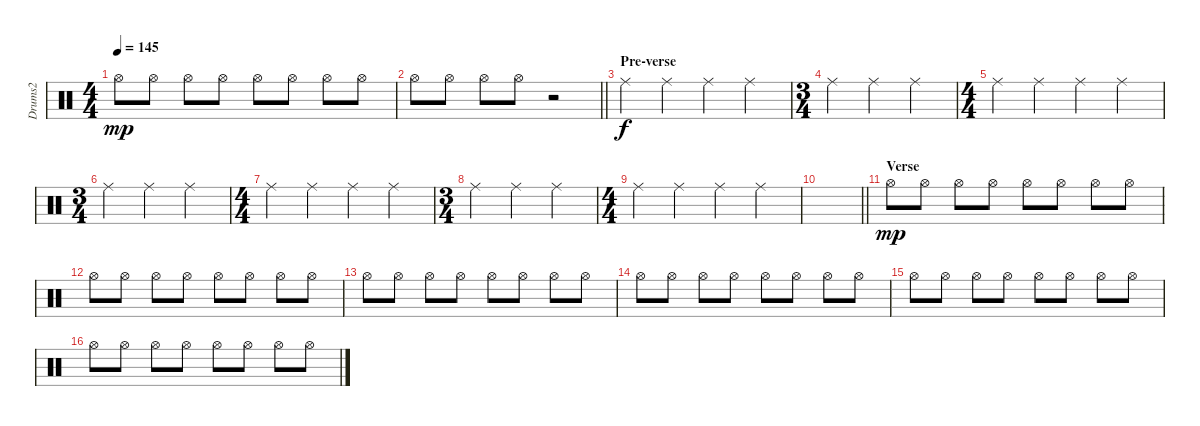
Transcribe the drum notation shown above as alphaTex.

\track ("Drums2" "Drums2") {instrument percussion}
\staff {score}
\articulation defaults
\ts (4 4)
\tempo 145
\clef neutral
\ks c "Hi-Hat (open)".8{dy mp} "Hi-Hat (open)".8 "Hi-Hat (open)".8 "Hi-Hat (open)".8 "Hi-Hat (open)".8 "Hi-Hat (open)".8 "Hi-Hat (open)".8 "Hi-Hat (open)".8
|
\barLineRight lightlight "Hi-Hat (open)".8 "Hi-Hat (open)".8 "Hi-Hat (open)".8 "Hi-Hat (open)".8
r.2 |
\section ("" "Pre-verse")
"Ride (middle)".4{dy f} "Ride (middle)".4 "Ride (middle)".4 "Ride (middle)".4 |
\ts (3 4)
"Ride (middle)".4 "Ride (middle)".4 "Ride (middle)".4 |
\ts (4 4)
"Ride (middle)".4 "Ride (middle)".4 "Ride (middle)".4 "Ride (middle)".4 |
\ts (3 4)
"Ride (middle)".4 "Ride (middle)".4 "Ride (middle)".4 |
\ts (4 4)
"Ride (middle)".4 "Ride (middle)".4 "Ride (middle)".4 "Ride (middle)".4 |
\ts (3 4)
"Ride (middle)".4 "Ride (middle)".4 "Ride (middle)".4 |
\ts (4 4)
"Ride (middle)".4 "Ride (middle)".4 "Ride (middle)".4 "Ride (middle)".4 |
\barLineRight lightlight
|
\section ("" "Verse")
"Hi-Hat (open)".8{dy mp} "Hi-Hat (open)".8 "Hi-Hat (open)".8 "Hi-Hat (open)".8 "Hi-Hat (open)".8 "Hi-Hat (open)".8 "Hi-Hat (open)".8 "Hi-Hat (open)".8 |
"Hi-Hat (open)".8 "Hi-Hat (open)".8 "Hi-Hat (open)".8 "Hi-Hat (open)".8 "Hi-Hat (open)".8 "Hi-Hat (open)".8 "Hi-Hat (open)".8 "Hi-Hat (open)".8 |
"Hi-Hat (open)".8 "Hi-Hat (open)".8 "Hi-Hat (open)".8 "Hi-Hat (open)".8 "Hi-Hat (open)".8 "Hi-Hat (open)".8 "Hi-Hat (open)".8 "Hi-Hat (open)".8 |
"Hi-Hat (open)".8 "Hi-Hat (open)".8 "Hi-Hat (open)".8 "Hi-Hat (open)".8 "Hi-Hat (open)".8 "Hi-Hat (open)".8 "Hi-Hat (open)".8 "Hi-Hat (open)".8 |
"Hi-Hat (open)".8 "Hi-Hat (open)".8 "Hi-Hat (open)".8 "Hi-Hat (open)".8 "Hi-Hat (open)".8 "Hi-Hat (open)".8 "Hi-Hat (open)".8 "Hi-Hat (open)".8 |
"Hi-Hat (open)".8 "Hi-Hat (open)".8 "Hi-Hat (open)".8 "Hi-Hat (open)".8 "Hi-Hat (open)".8 "Hi-Hat (open)".8 "Hi-Hat (open)".8 "Hi-Hat (open)".8
